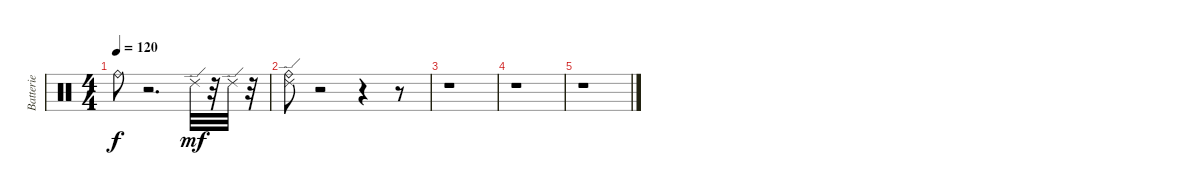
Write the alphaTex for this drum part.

\track ("Batterie" "Batterie") {instrument percussion}
\staff {score}
\articulation defaults
\ts (4 4)
\tempo 120
\clef neutral
\ks c "Ride (bell)".8{dy f}
r.2{d} "Ride (edge) 2".32{dy mf} r.32 "Ride (edge) 2".32 r.32 |
("Ride (bell)" "Ride (edge) 2").8 r.2 r.4 r.8 |
r.1 |
r.1 |
r.1
